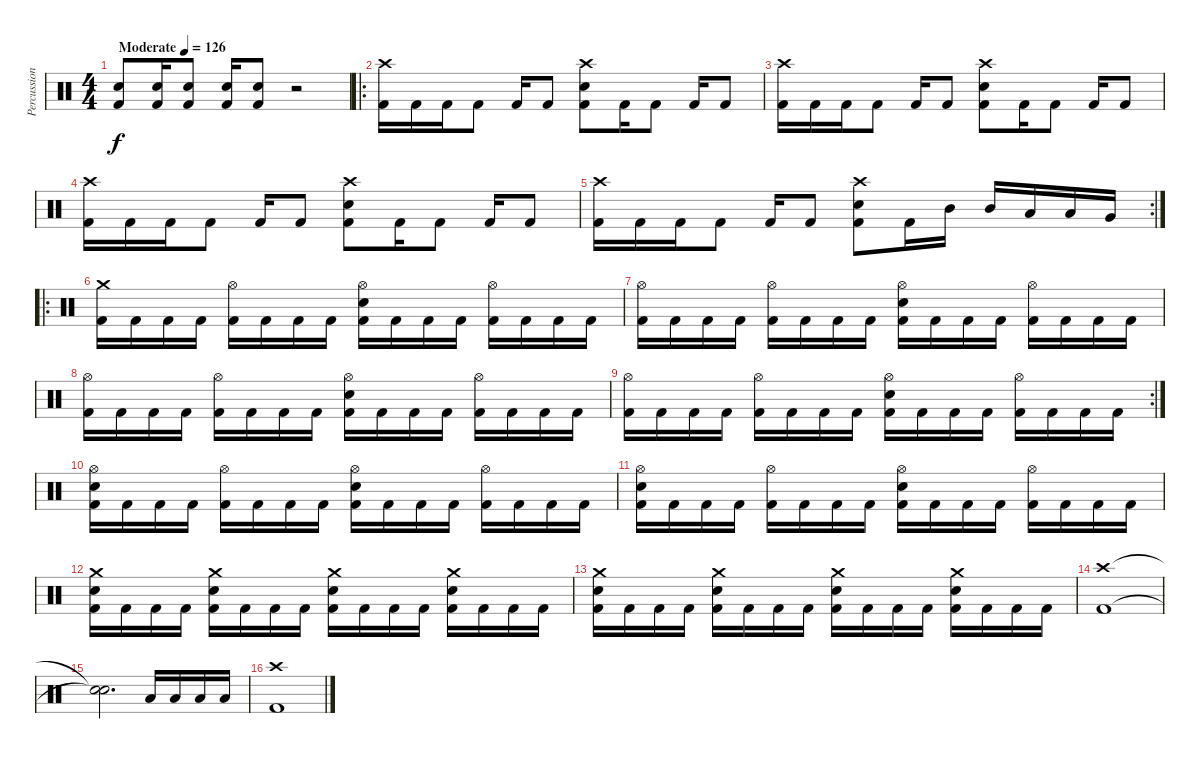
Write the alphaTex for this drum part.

\track ("Percussion" "Percussion") {instrument percussion}
\staff {score}
\articulation defaults
\ts (4 4)
\tempo (126 "Moderate")
\clef neutral
\ks c
("Electric Snare (hit)" "Kick (hit) 2").8{dy f} ("Electric Snare (hit)" "Kick (hit) 2").16 ("Electric Snare (hit)" "Kick (hit) 2").8 ("Electric Snare (hit)" "Kick (hit) 2").16 ("Electric Snare (hit)" "Kick (hit) 2").8 r.2 |
\ro
("Crash high (hit)" "Kick (hit) 2").16 "Kick (hit) 2".16 "Kick (hit) 2".16 "Kick (hit) 2".8 "Kick (hit) 2".16 "Kick (hit) 2".8 ("Crash high (hit)" "Electric Snare (hit)" "Kick (hit) 2").8 "Kick (hit) 2".16 "Kick (hit) 2".8 "Kick (hit) 2".16 "Kick (hit) 2".8 |
("Crash high (hit)" "Kick (hit) 2").16 "Kick (hit) 2".16 "Kick (hit) 2".16 "Kick (hit) 2".8 "Kick (hit) 2".16 "Kick (hit) 2".8 ("Crash high (hit)" "Electric Snare (hit)" "Kick (hit) 2").8 "Kick (hit) 2".16 "Kick (hit) 2".8 "Kick (hit) 2".16 "Kick (hit) 2".8 |
("Crash high (hit)" "Kick (hit) 2").16 "Kick (hit) 2".16 "Kick (hit) 2".16 "Kick (hit) 2".8 "Kick (hit) 2".16 "Kick (hit) 2".8 ("Crash high (hit)" "Electric Snare (hit)" "Kick (hit) 2").8 "Kick (hit) 2".16 "Kick (hit) 2".8 "Kick (hit) 2".16 "Kick (hit) 2".8 |
\rc 2
("Crash high (hit)" "Kick (hit) 2").16 "Kick (hit) 2".16 "Kick (hit) 2".16 "Kick (hit) 2".8 "Kick (hit) 2".16 "Kick (hit) 2".8 ("Crash high (hit)" "Electric Snare (hit)" "Kick (hit) 2").8 "Kick (hit) 2".16 "Mid Tom (hit)".16 "Mid Tom (hit)".16 "Low Tom (hit)".16 "Low Tom (hit)".16 "Very Low Tom (hit)".16 |
\ro
("Crash medium (hit)" "Kick (hit) 2").16 "Kick (hit) 2".16 "Kick (hit) 2".16 "Kick (hit) 2".16 ("Hi-Hat (open)" "Kick (hit) 2").16 "Kick (hit) 2".16 "Kick (hit) 2".16 "Kick (hit) 2".16 ("Hi-Hat (open)" "Electric Snare (hit)" "Kick (hit) 2").16 "Kick (hit) 2".16 "Kick (hit) 2".16 "Kick (hit) 2".16 ("Hi-Hat (open)" "Kick (hit) 2").16 "Kick (hit) 2".16 "Kick (hit) 2".16 "Kick (hit) 2".16 |
("Hi-Hat (open)" "Kick (hit) 2").16 "Kick (hit) 2".16 "Kick (hit) 2".16 "Kick (hit) 2".16 ("Hi-Hat (open)" "Kick (hit) 2").16 "Kick (hit) 2".16 "Kick (hit) 2".16 "Kick (hit) 2".16 ("Hi-Hat (open)" "Electric Snare (hit)" "Kick (hit) 2").16 "Kick (hit) 2".16 "Kick (hit) 2".16 "Kick (hit) 2".16 ("Hi-Hat (open)" "Kick (hit) 2").16 "Kick (hit) 2".16 "Kick (hit) 2".16 "Kick (hit) 2".16 |
("Hi-Hat (open)" "Kick (hit) 2").16 "Kick (hit) 2".16 "Kick (hit) 2".16 "Kick (hit) 2".16 ("Hi-Hat (open)" "Kick (hit) 2").16 "Kick (hit) 2".16 "Kick (hit) 2".16 "Kick (hit) 2".16 ("Hi-Hat (open)" "Electric Snare (hit)" "Kick (hit) 2").16 "Kick (hit) 2".16 "Kick (hit) 2".16 "Kick (hit) 2".16 ("Hi-Hat (open)" "Kick (hit) 2").16 "Kick (hit) 2".16 "Kick (hit) 2".16 "Kick (hit) 2".16 |
\rc 2
("Hi-Hat (open)" "Kick (hit) 2").16 "Kick (hit) 2".16 "Kick (hit) 2".16 "Kick (hit) 2".16 ("Hi-Hat (open)" "Kick (hit) 2").16 "Kick (hit) 2".16 "Kick (hit) 2".16 "Kick (hit) 2".16 ("Hi-Hat (open)" "Electric Snare (hit)" "Kick (hit) 2").16 "Kick (hit) 2".16 "Kick (hit) 2".16 "Kick (hit) 2".16 ("Hi-Hat (open)" "Kick (hit) 2").16 "Kick (hit) 2".16 "Kick (hit) 2".16 "Kick (hit) 2".16 |
("Hi-Hat (open)" "Electric Snare (hit)" "Kick (hit) 2").16 "Kick (hit) 2".16 "Kick (hit) 2".16 "Kick (hit) 2".16 ("Hi-Hat (open)" "Kick (hit) 2").16 "Kick (hit) 2".16 "Kick (hit) 2".16 "Kick (hit) 2".16 ("Hi-Hat (open)" "Electric Snare (hit)" "Kick (hit) 2").16 "Kick (hit) 2".16 "Kick (hit) 2".16 "Kick (hit) 2".16 ("Hi-Hat (open)" "Kick (hit) 2").16 "Kick (hit) 2".16 "Kick (hit) 2".16 "Kick (hit) 2".16 |
("Hi-Hat (open)" "Electric Snare (hit)" "Kick (hit) 2").16 "Kick (hit) 2".16 "Kick (hit) 2".16 "Kick (hit) 2".16 ("Hi-Hat (open)" "Kick (hit) 2").16 "Kick (hit) 2".16 "Kick (hit) 2".16 "Kick (hit) 2".16 ("Hi-Hat (open)" "Electric Snare (hit)" "Kick (hit) 2").16 "Kick (hit) 2".16 "Kick (hit) 2".16 "Kick (hit) 2".16 ("Hi-Hat (open)" "Kick (hit) 2").16 "Kick (hit) 2".16 "Kick (hit) 2".16 "Kick (hit) 2".16 |
("Crash medium (hit)" "Electric Snare (hit)" "Kick (hit) 2").16 "Kick (hit) 2".16 "Kick (hit) 2".16 "Kick (hit) 2".16 ("Crash medium (hit)" "Electric Snare (hit)" "Kick (hit) 2").16 "Kick (hit) 2".16 "Kick (hit) 2".16 "Kick (hit) 2".16 ("Crash medium (hit)" "Electric Snare (hit)" "Kick (hit) 2").16 "Kick (hit) 2".16 "Kick (hit) 2".16 "Kick (hit) 2".16 ("Crash medium (hit)" "Electric Snare (hit)" "Kick (hit) 2").16 "Kick (hit) 2".16 "Kick (hit) 2".16 "Kick (hit) 2".16 |
("Crash medium (hit)" "Electric Snare (hit)" "Kick (hit) 2").16 "Kick (hit) 2".16 "Kick (hit) 2".16 "Kick (hit) 2".16 ("Crash medium (hit)" "Electric Snare (hit)" "Kick (hit) 2").16 "Kick (hit) 2".16 "Kick (hit) 2".16 "Kick (hit) 2".16 ("Crash medium (hit)" "Electric Snare (hit)" "Kick (hit) 2").16 "Kick (hit) 2".16 "Kick (hit) 2".16 "Kick (hit) 2".16 ("Crash medium (hit)" "Electric Snare (hit)" "Kick (hit) 2").16 "Kick (hit) 2".16 "Kick (hit) 2".16 "Kick (hit) 2".16 |
("Crash high (hit)" "Kick (hit) 2").1 |
("Snare (hit)"{t} "Snare (hit)"{t}).2{d} "Low Tom (hit)".16 "Low Tom (hit)".16 "Low Tom (hit)".16 "Low Tom (hit)".16 |
("Crash high (hit)" "Kick (hit) 2").1
